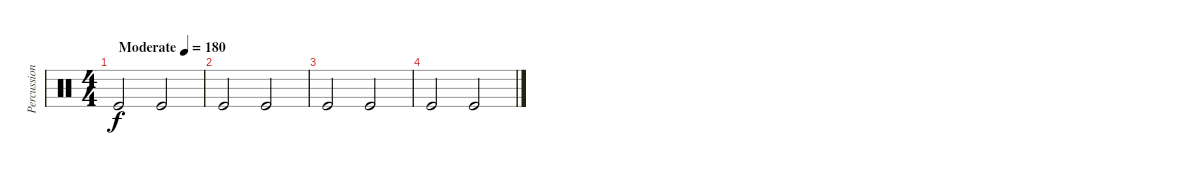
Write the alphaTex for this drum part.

\track ("Percussion" "Percussion") {instrument percussion}
\staff {score}
\articulation defaults
\ts (4 4)
\tempo (180 "Moderate")
\clef neutral
\ks c "Kick (hit)".2{dy f} "Kick (hit)".2
|
"Kick (hit)".2 "Kick (hit)".2 |
"Kick (hit)".2 "Kick (hit)".2 |
"Kick (hit)".2 "Kick (hit)".2
